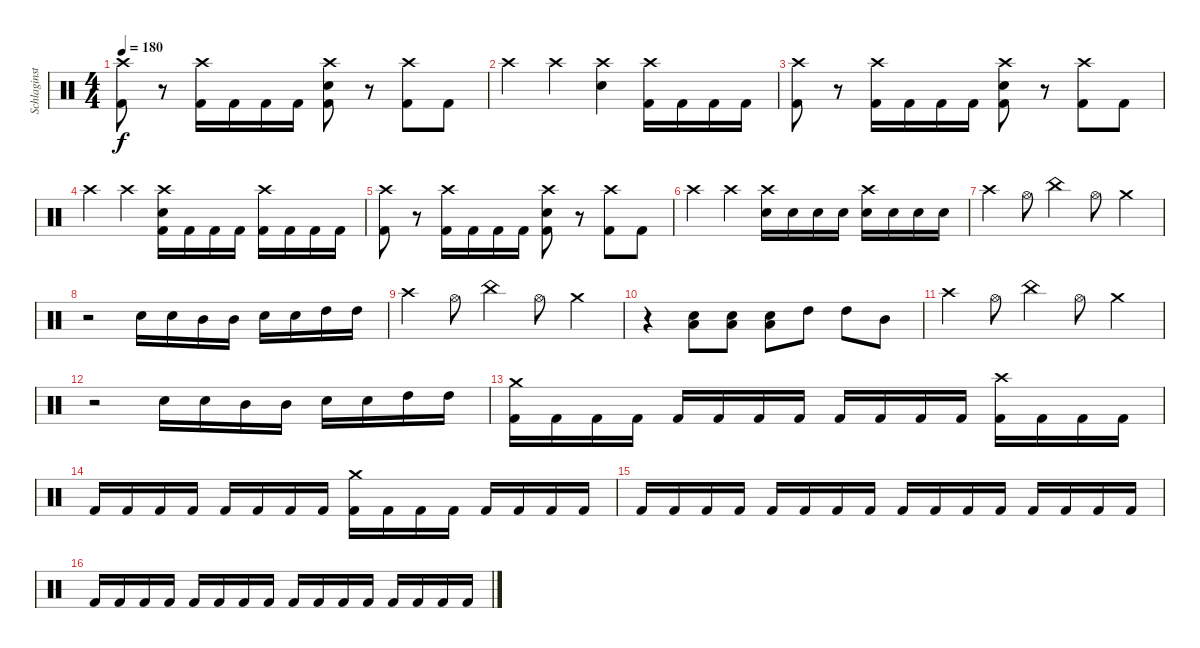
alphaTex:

\track ("Schlaginstrumente - Auswahl" "Schlaginst") {instrument percussion}
\staff {score}
\articulation defaults
\ts (4 4)
\tempo 180
\clef neutral
\ks c
("Crash high (hit)" "Kick (hit) 2").8{dy f} r.8 ("Crash high (hit)" "Kick (hit) 2").16 "Kick (hit) 2".16 "Kick (hit) 2".16 "Kick (hit) 2".16 ("Crash high (hit)" "Snare (hit) 2" "Kick (hit) 2").8 r.8 ("Crash high (hit)" "Kick (hit) 2").8 "Kick (hit) 2".8 |
"Crash high (hit)".4 "Crash high (hit)".4 ("Crash high (hit)" "Snare (hit) 2").4 ("Crash high (hit)" "Kick (hit) 2").16 "Kick (hit) 2".16 "Kick (hit) 2".16 "Kick (hit) 2".16 |
("Crash high (hit)" "Kick (hit) 2").8 r.8 ("Crash high (hit)" "Kick (hit) 2").16 "Kick (hit) 2".16 "Kick (hit) 2".16 "Kick (hit) 2".16 ("Crash high (hit)" "Snare (hit) 2" "Kick (hit) 2").8 r.8 ("Crash high (hit)" "Kick (hit) 2").8 "Kick (hit) 2".8 |
"Crash high (hit)".4 "Crash high (hit)".4 ("Crash high (hit)" "Snare (hit) 2" "Kick (hit) 2").16 "Kick (hit) 2".16 "Kick (hit) 2".16 "Kick (hit) 2".16 ("Crash high (hit)" "Kick (hit) 2").16 "Kick (hit) 2".16 "Kick (hit) 2".16 "Kick (hit) 2".16 |
("Crash high (hit)" "Kick (hit) 2").8 r.8 ("Crash high (hit)" "Kick (hit) 2").16 "Kick (hit) 2".16 "Kick (hit) 2".16 "Kick (hit) 2".16 ("Crash high (hit)" "Snare (hit) 2" "Kick (hit) 2").8 r.8 ("Crash high (hit)" "Kick (hit) 2").8 "Kick (hit) 2".8 |
"Crash high (hit)".4 "Crash high (hit)".4 ("Crash high (hit)" "Snare (hit) 2").16 "Snare (hit) 2".16 "Snare (hit) 2".16 "Snare (hit) 2".16 ("Crash high (hit)" "Snare (hit) 2").16 "Snare (hit) 2".16 "Snare (hit) 2".16 "Snare (hit) 2".16 |
"Crash high (hit)".4 "Hi-Hat (open)".8 "China (hit)".4 "Hi-Hat (open)".8 "Crash medium (hit)".4 |
r.2 "Snare (hit) 2".16 "Snare (hit) 2".16 "Mid Tom (hit)".16 "Mid Tom (hit)".16 "Snare (hit) 2".16 "Snare (hit) 2".16 "High Tom (hit)".16 "High Tom (hit)".16 |
"Crash high (hit)".4 "Hi-Hat (open)".8 "China (hit)".4 "Hi-Hat (open)".8 "Crash medium (hit)".4 |
r.4 ("Low Tom (hit)" "Snare (hit) 2").8 ("Low Tom (hit)" "Snare (hit) 2").8 ("Low Tom (hit)" "Snare (hit) 2").8 "High Tom (hit)".8 "High Tom (hit)".8 "Mid Tom (hit)".8 |
"Crash high (hit)".4 "Hi-Hat (open)".8 "China (hit)".4 "Hi-Hat (open)".8 "Crash medium (hit)".4 |
r.2 "Snare (hit) 2".16 "Snare (hit) 2".16 "Mid Tom (hit)".16 "Mid Tom (hit)".16 "Snare (hit) 2".16 "Snare (hit) 2".16 "High Tom (hit)".16 "High Tom (hit)".16 |
("Crash medium (hit)" "Kick (hit) 2").16 "Kick (hit) 2".16 "Kick (hit) 2".16 "Kick (hit) 2".16 "Kick (hit) 2".16 "Kick (hit) 2".16 "Kick (hit) 2".16 "Kick (hit) 2".16 "Kick (hit) 2".16 "Kick (hit) 2".16 "Kick (hit) 2".16 "Kick (hit) 2".16 ("Crash high (hit)" "Kick (hit) 2").16 "Kick (hit) 2".16 "Kick (hit) 2".16 "Kick (hit) 2".16 |
"Kick (hit) 2".16 "Kick (hit) 2".16 "Kick (hit) 2".16 "Kick (hit) 2".16 "Kick (hit) 2".16 "Kick (hit) 2".16 "Kick (hit) 2".16 "Kick (hit) 2".16 ("Crash medium (hit)" "Kick (hit) 2").16 "Kick (hit) 2".16 "Kick (hit) 2".16 "Kick (hit) 2".16 "Kick (hit) 2".16 "Kick (hit) 2".16 "Kick (hit) 2".16 "Kick (hit) 2".16 |
"Kick (hit) 2".16 "Kick (hit) 2".16 "Kick (hit) 2".16 "Kick (hit) 2".16 "Kick (hit) 2".16 "Kick (hit) 2".16 "Kick (hit) 2".16 "Kick (hit) 2".16 "Kick (hit) 2".16 "Kick (hit) 2".16 "Kick (hit) 2".16 "Kick (hit) 2".16 "Kick (hit) 2".16 "Kick (hit) 2".16 "Kick (hit) 2".16 "Kick (hit) 2".16 |
"Kick (hit) 2".16 "Kick (hit) 2".16 "Kick (hit) 2".16 "Kick (hit) 2".16 "Kick (hit) 2".16 "Kick (hit) 2".16 "Kick (hit) 2".16 "Kick (hit) 2".16 "Kick (hit) 2".16 "Kick (hit) 2".16 "Kick (hit) 2".16 "Kick (hit) 2".16 "Kick (hit) 2".16 "Kick (hit) 2".16 "Kick (hit) 2".16 "Kick (hit) 2".16
